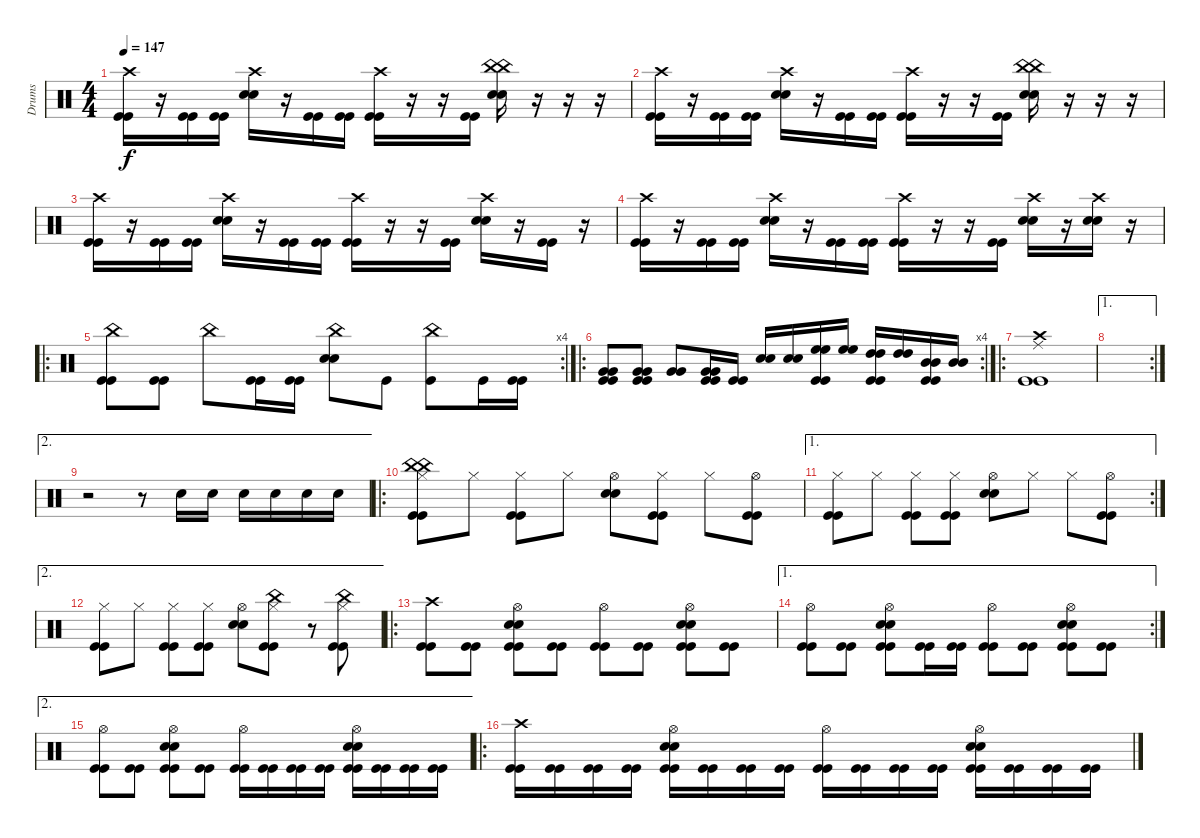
\track ("Drums" "Drums") {instrument percussion}
\staff {score}
\articulation defaults
\ts (4 4)
\tempo 147
\clef neutral
\ks c
("Crash high (hit)" "Kick (hit)" "Kick (hit)").16{dy f} r.16 ("Kick (hit)" "Kick (hit)").16 ("Kick (hit)" "Kick (hit)").16 ("Crash high (hit)" "Snare (hit) 2" "Snare (hit) 2").16 r.16 ("Kick (hit)" "Kick (hit)").16 ("Kick (hit)" "Kick (hit)").16 ("Crash high (hit)" "Kick (hit)" "Kick (hit)").16 r.16 r.16 ("Kick (hit)" "Kick (hit)").16 ("China (hit)" "China (hit)" "Snare (hit) 2" "Snare (hit) 2").16 r.16 r.16 r.16 |
("Crash high (hit)" "Kick (hit)" "Kick (hit)").16 r.16 ("Kick (hit)" "Kick (hit)").16 ("Kick (hit)" "Kick (hit)").16 ("Crash high (hit)" "Snare (hit) 2" "Snare (hit) 2").16 r.16 ("Kick (hit)" "Kick (hit)").16 ("Kick (hit)" "Kick (hit)").16 ("Crash high (hit)" "Kick (hit)" "Kick (hit)").16 r.16 r.16 ("Kick (hit)" "Kick (hit)").16 ("China (hit)" "China (hit)" "Snare (hit) 2" "Snare (hit) 2").16 r.16 r.16 r.16 |
("Crash high (hit)" "Kick (hit)" "Kick (hit)").16 r.16 ("Kick (hit)" "Kick (hit)").16 ("Kick (hit)" "Kick (hit)").16 ("Crash high (hit)" "Snare (hit) 2" "Snare (hit) 2").16 r.16 ("Kick (hit)" "Kick (hit)").16 ("Kick (hit)" "Kick (hit)").16 ("Crash high (hit)" "Kick (hit)" "Kick (hit)").16 r.16 r.16 ("Kick (hit)" "Kick (hit)").16 ("Crash high (hit)" "Snare (hit) 2" "Snare (hit) 2").16 r.16 ("Kick (hit)" "Kick (hit)").16 r.16 |
("Crash high (hit)" "Kick (hit)" "Kick (hit)").16 r.16 ("Kick (hit)" "Kick (hit)").16 ("Kick (hit)" "Kick (hit)").16 ("Crash high (hit)" "Snare (hit) 2" "Snare (hit) 2").16 r.16 ("Kick (hit)" "Kick (hit)").16 ("Kick (hit)" "Kick (hit)").16 ("Crash high (hit)" "Kick (hit)" "Kick (hit)").16 r.16 r.16 ("Kick (hit)" "Kick (hit)").16 ("Crash high (hit)" "Snare (hit) 2" "Snare (hit) 2").16 r.16 ("Crash high (hit)" "Snare (hit) 2" "Snare (hit) 2").16 r.16 |
\ro
\rc 4
("China (hit)" "Kick (hit)" "Kick (hit)").8 ("Kick (hit)" "Kick (hit)").8 "China (hit)".8 ("Kick (hit)" "Kick (hit)").16 ("Kick (hit)" "Kick (hit)").16 ("China (hit)" "Snare (hit) 2" "Snare (hit) 2").8 "Kick (hit)".8 ("China (hit)" "Kick (hit)").8 "Kick (hit)".16 ("Kick (hit)" "Kick (hit)").16 |
\ro
\rc 4
("Very Low Tom (hit)" "Very Low Tom (hit)" "Kick (hit)" "Kick (hit)").8 ("Very Low Tom (hit)" "Very Low Tom (hit)" "Kick (hit)" "Kick (hit)").8 ("Very Low Tom (hit)" "Very Low Tom (hit)").8 ("Very Low Tom (hit)" "Very Low Tom (hit)" "Kick (hit)" "Kick (hit)").16 ("Kick (hit)" "Kick (hit)").16 ("Snare (hit) 2" "Snare (hit) 2").16 ("Snare (hit) 2" "Snare (hit) 2").16 ("High Floor Tom (hit)" "High Floor Tom (hit)" "Kick (hit)" "Kick (hit)").16 ("High Floor Tom (hit)" "High Floor Tom (hit)").16 ("High Tom (hit)" "High Tom (hit)" "Kick (hit)" "Kick (hit)").16 ("High Tom (hit)" "High Tom (hit)").16 ("Mid Tom (hit)" "Mid Tom (hit)" "Kick (hit)" "Kick (hit)").16 ("Mid Tom (hit)" "Mid Tom (hit)").16 |
\ro
("Crash high (hit)" "Ride (middle)" "Kick (hit)" "Kick (hit)").1 |
\ae 1
\rc 2
|
\ae 2
r.2 r.8 "Snare (hit) 2".16{volume 4} "Snare (hit) 2".16{volume 6} "Snare (hit) 2".16{volume 8} "Snare (hit) 2".16{volume 10} "Snare (hit) 2".16{volume 11} "Snare (hit) 2".16{volume 13} |
\ro
("China (hit)" "China (hit)" "Hi-Hat (closed)" "Kick (hit)" "Kick (hit)").8 "Hi-Hat (closed)".8 ("Hi-Hat (closed)" "Kick (hit)" "Kick (hit)").8 "Hi-Hat (closed)".8 ("Hi-Hat (open)" "Snare (hit) 2" "Snare (hit) 2").8 ("Hi-Hat (closed)" "Kick (hit)" "Kick (hit)").8 "Hi-Hat (closed)".8 ("Hi-Hat (open)" "Kick (hit)" "Kick (hit)").8 |
\ae 1
\rc 2
("Hi-Hat (closed)" "Kick (hit)" "Kick (hit)").8 "Hi-Hat (closed)".8 ("Hi-Hat (closed)" "Kick (hit)" "Kick (hit)").8 ("Hi-Hat (closed)" "Kick (hit)" "Kick (hit)").8 ("Hi-Hat (open)" "Snare (hit) 2" "Snare (hit) 2").8 "Hi-Hat (closed)".8 "Hi-Hat (closed)".8 ("Hi-Hat (open)" "Kick (hit)" "Kick (hit)").8 |
\ae 2
("Hi-Hat (closed)" "Kick (hit)" "Kick (hit)").8 "Hi-Hat (closed)".8 ("Hi-Hat (closed)" "Kick (hit)" "Kick (hit)").8 ("Hi-Hat (closed)" "Kick (hit)" "Kick (hit)").8 ("Hi-Hat (open)" "Snare (hit) 2" "Snare (hit) 2").8 ("China (hit)" "Hi-Hat (closed)" "Kick (hit)" "Kick (hit)").8 r.8 ("China (hit)" "Hi-Hat (closed)" "Kick (hit)" "Kick (hit)").8 |
\ro
("Crash high (hit)" "Kick (hit)" "Kick (hit)").8 ("Kick (hit)" "Kick (hit)").8 ("Hi-Hat (open)" "Snare (hit) 2" "Snare (hit) 2" "Kick (hit)" "Kick (hit)").8 ("Kick (hit)" "Kick (hit)").8 ("Hi-Hat (open)" "Kick (hit)" "Kick (hit)").8 ("Kick (hit)" "Kick (hit)").8 ("Hi-Hat (open)" "Snare (hit) 2" "Snare (hit) 2" "Kick (hit)" "Kick (hit)").8 ("Kick (hit)" "Kick (hit)").8 |
\ae 1
\rc 2
("Hi-Hat (open)" "Kick (hit)" "Kick (hit)").8 ("Kick (hit)" "Kick (hit)").8 ("Hi-Hat (open)" "Snare (hit) 2" "Snare (hit) 2" "Kick (hit)" "Kick (hit)").8 ("Kick (hit)" "Kick (hit)").16 ("Kick (hit)" "Kick (hit)").16 ("Hi-Hat (open)" "Kick (hit)" "Kick (hit)").8 ("Kick (hit)" "Kick (hit)").8 ("Hi-Hat (open)" "Snare (hit) 2" "Snare (hit) 2" "Kick (hit)" "Kick (hit)").8 ("Kick (hit)" "Kick (hit)").8 |
\ae 2
("Hi-Hat (open)" "Kick (hit)" "Kick (hit)").8 ("Kick (hit)" "Kick (hit)").8 ("Hi-Hat (open)" "Snare (hit) 2" "Snare (hit) 2" "Kick (hit)" "Kick (hit)").8 ("Kick (hit)" "Kick (hit)").8 ("Hi-Hat (open)" "Kick (hit)" "Kick (hit)").16 ("Kick (hit)" "Kick (hit)").16 ("Kick (hit)" "Kick (hit)").16 ("Kick (hit)" "Kick (hit)").16 ("Hi-Hat (open)" "Snare (hit) 2" "Snare (hit) 2" "Kick (hit)" "Kick (hit)").16 ("Kick (hit)" "Kick (hit)").16 ("Kick (hit)" "Kick (hit)").16 ("Kick (hit)" "Kick (hit)").16 |
\ro
("Crash high (hit)" "Kick (hit)" "Kick (hit)").16 ("Kick (hit)" "Kick (hit)").16 ("Kick (hit)" "Kick (hit)").16 ("Kick (hit)" "Kick (hit)").16 ("Hi-Hat (open)" "Snare (hit) 2" "Snare (hit) 2" "Kick (hit)" "Kick (hit)").16 ("Kick (hit)" "Kick (hit)").16 ("Kick (hit)" "Kick (hit)").16 ("Kick (hit)" "Kick (hit)").16 ("Hi-Hat (open)" "Kick (hit)" "Kick (hit)").16 ("Kick (hit)" "Kick (hit)").16 ("Kick (hit)" "Kick (hit)").16 ("Kick (hit)" "Kick (hit)").16 ("Hi-Hat (open)" "Snare (hit) 2" "Snare (hit) 2" "Kick (hit)" "Kick (hit)").16 ("Kick (hit)" "Kick (hit)").16 ("Kick (hit)" "Kick (hit)").16 ("Kick (hit)" "Kick (hit)").16
